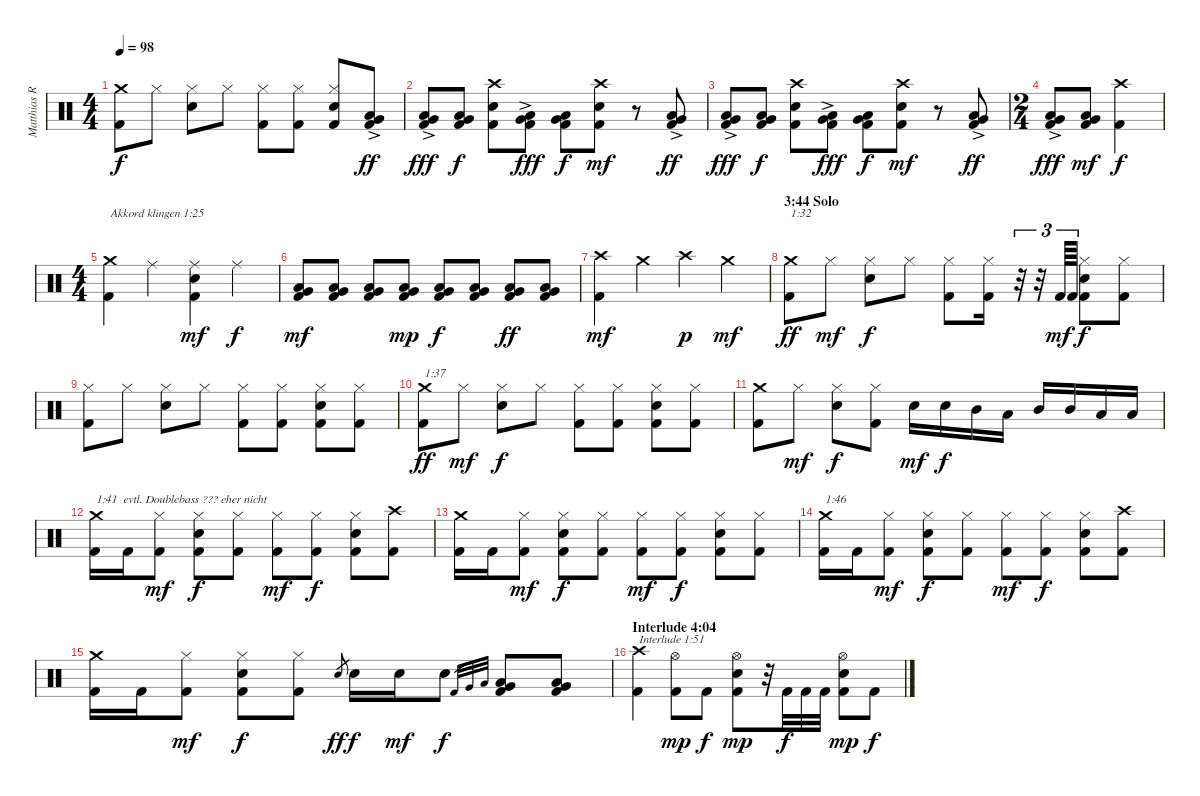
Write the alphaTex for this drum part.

\track ("Matthias R." "Matthias R") {instrument percussion}
\staff {score}
\articulation defaults
\ts (4 4)
\tempo 98
\clef neutral
\ks c
("Kick (hit) 2" "Crash medium (hit)").8{dy f} "Hi-Hat (closed)".8 ("Electric Snare (hit)" "Hi-Hat (closed)").8 "Hi-Hat (closed)".8 ("Kick (hit) 2" "Hi-Hat (closed)").8 ("Kick (hit) 2" "Hi-Hat (closed)").8 ("Kick (hit) 2" "Electric Snare (hit)" "Hi-Hat (closed)").8 ("Kick (hit) 2" "Very Low Tom (hit)"{ac} "Low Tom (hit)"{ac}).8{dy ff} |
("Kick (hit) 2" "Very Low Tom (hit)"{ac} "Low Tom (hit)"{ac}).8{dy fff} ("Kick (hit) 2" "Very Low Tom (hit)" "Low Tom (hit)").8{dy f} ("Kick (hit) 2" "Electric Snare (hit)" "Crash high (hit)").8 ("Kick (hit) 2" "Very Low Tom (hit)"{ac} "Low Tom (hit)"{ac}).8{dy fff} ("Kick (hit) 2" "Very Low Tom (hit)" "Low Tom (hit)").8{dy f} ("Kick (hit) 2" "Electric Snare (hit)" "Crash high (hit)").8{dy mf} r.8 ("Kick (hit) 2" "Very Low Tom (hit)"{ac} "Low Tom (hit)"{ac}).8{dy ff} |
("Kick (hit) 2" "Very Low Tom (hit)"{ac} "Low Tom (hit)"{ac}).8{dy fff} ("Kick (hit) 2" "Very Low Tom (hit)" "Low Tom (hit)").8{dy f} ("Kick (hit) 2" "Electric Snare (hit)" "Crash high (hit)").8 ("Kick (hit) 2" "Very Low Tom (hit)"{ac} "Low Tom (hit)"{ac}).8{dy fff} ("Kick (hit) 2" "Very Low Tom (hit)" "Low Tom (hit)").8{dy f} ("Kick (hit) 2" "Electric Snare (hit)" "Crash high (hit)").8{dy mf} r.8 ("Kick (hit) 2" "Very Low Tom (hit)"{ac} "Low Tom (hit)"{ac}).8{dy ff} |
\ts (2 4)
("Kick (hit) 2" "Very Low Tom (hit)"{ac} "Low Tom (hit)"{ac}).8{dy fff} ("Kick (hit) 2" "Very Low Tom (hit)" "Low Tom (hit)").8{dy mf} ("Kick (hit) 2" "Crash high (hit)").4{dy f} |
\ts (4 4)
("Kick (hit) 2" "Crash medium (hit)").4{txt "Akkord klingen 1:25"} "Ride (middle)".4 ("Kick (hit) 2" "Electric Snare (hit)" "Ride (middle)").4{dy mf} "Ride (middle)".4{dy f} |
("Kick (hit) 2" "Very Low Tom (hit)" "Low Tom (hit)").8{dy mf} ("Kick (hit) 2" "Very Low Tom (hit)" "Low Tom (hit)").8 ("Kick (hit) 2" "Very Low Tom (hit)" "Low Tom (hit)").8 ("Kick (hit) 2" "Very Low Tom (hit)" "Low Tom (hit)").8{dy mp} ("Kick (hit) 2" "Very Low Tom (hit)" "Low Tom (hit)").8{dy f} ("Kick (hit) 2" "Very Low Tom (hit)" "Low Tom (hit)").8 ("Kick (hit) 2" "Very Low Tom (hit)" "Low Tom (hit)").8{dy ff} ("Kick (hit) 2" "Very Low Tom (hit)" "Low Tom (hit)").8 |
("Kick (hit) 2" "Crash high (hit)").4{dy mf} "Crash medium (hit)".4 "Crash high (hit)".4{dy p} "Crash medium (hit)".4{dy mf} |
\section ("" "3:44 Solo")
("Kick (hit) 2" "Crash medium (hit)").8{txt "1:32" dy ff} "Hi-Hat (closed)".8{dy mf} ("Electric Snare (hit)" "Hi-Hat (closed)").8{dy f} "Hi-Hat (closed)".8 ("Kick (hit) 2" "Hi-Hat (closed)").8 ("Kick (hit) 2" "Hi-Hat (closed)").16 r.32{tu (3 2)} r.32{tu (3 2)} "Kick (hit) 2".64{tu (3 2) dy mf} "Kick (hit) 2".64{tu (3 2)} ("Kick (hit) 2" "Electric Snare (hit)" "Hi-Hat (closed)").8{dy f} ("Kick (hit) 2" "Hi-Hat (closed)").8 |
("Kick (hit) 2" "Hi-Hat (closed)").8 "Hi-Hat (closed)".8 ("Electric Snare (hit)" "Hi-Hat (closed)").8 "Hi-Hat (closed)".8 ("Kick (hit) 2" "Hi-Hat (closed)").8 ("Kick (hit) 2" "Hi-Hat (closed)").8 ("Kick (hit) 2" "Electric Snare (hit)" "Hi-Hat (closed)").8 ("Kick (hit) 2" "Hi-Hat (closed)").8 |
("Kick (hit) 2" "Crash medium (hit)").8{txt "1:37" dy ff} "Hi-Hat (closed)".8{dy mf} ("Electric Snare (hit)" "Hi-Hat (closed)").8{dy f} "Hi-Hat (closed)".8 ("Kick (hit) 2" "Hi-Hat (closed)").8 ("Kick (hit) 2" "Hi-Hat (closed)").8 ("Kick (hit) 2" "Electric Snare (hit)" "Hi-Hat (closed)").8 ("Kick (hit) 2" "Hi-Hat (closed)").8 |
("Kick (hit) 2" "Crash medium (hit)").8 "Hi-Hat (closed)".8{dy mf} ("Electric Snare (hit)" "Hi-Hat (closed)").8{dy f} ("Kick (hit) 2" "Hi-Hat (closed)").8 "Electric Snare (hit)".16{dy mf} "Electric Snare (hit)".16{dy f} "Mid Tom (hit)".16 "Low Tom (hit)".16 "Mid Tom (hit)".16 "Mid Tom (hit)".16 "Low Tom (hit)".16 "Low Tom (hit)".16 |
("Kick (hit) 2" "Crash medium (hit)").16{txt "1:41  evtl. Doublebass ??? eher nicht"} "Kick (hit) 2".16 ("Kick (hit) 2" "Hi-Hat (closed)").8{dy mf} ("Kick (hit) 2" "Electric Snare (hit)" "Hi-Hat (closed)").8{dy f} ("Kick (hit) 2" "Hi-Hat (closed)").8 ("Kick (hit) 2" "Hi-Hat (closed)").8{dy mf} ("Kick (hit) 2" "Hi-Hat (closed)").8{dy f} ("Kick (hit) 2" "Electric Snare (hit)" "Hi-Hat (closed)").8 ("Kick (hit) 2" "Crash high (hit)").8 |
("Kick (hit) 2" "Crash medium (hit)").16 "Kick (hit) 2".16 ("Kick (hit) 2" "Hi-Hat (closed)").8{dy mf} ("Kick (hit) 2" "Electric Snare (hit)" "Hi-Hat (closed)").8{dy f} ("Kick (hit) 2" "Hi-Hat (closed)").8 ("Kick (hit) 2" "Hi-Hat (closed)").8{dy mf} ("Kick (hit) 2" "Hi-Hat (closed)").8{dy f} ("Kick (hit) 2" "Electric Snare (hit)" "Hi-Hat (closed)").8 ("Kick (hit) 2" "Hi-Hat (closed)").8 |
("Kick (hit) 2" "Crash medium (hit)").16{txt "1:46"} "Kick (hit) 2".16 ("Kick (hit) 2" "Hi-Hat (closed)").8{dy mf} ("Kick (hit) 2" "Electric Snare (hit)" "Hi-Hat (closed)").8{dy f} ("Kick (hit) 2" "Hi-Hat (closed)").8 ("Kick (hit) 2" "Hi-Hat (closed)").8{dy mf} ("Kick (hit) 2" "Hi-Hat (closed)").8{dy f} ("Kick (hit) 2" "Electric Snare (hit)" "Hi-Hat (closed)").8 ("Kick (hit) 2" "Crash high (hit)").8 |
("Kick (hit) 2" "Crash medium (hit)").16 "Kick (hit) 2".16 ("Kick (hit) 2" "Hi-Hat (closed)").8{dy mf} ("Kick (hit) 2" "Electric Snare (hit)" "Hi-Hat (closed)").8{dy f} ("Kick (hit) 2" "Hi-Hat (closed)").8 "Electric Snare (hit)".8{gr dy ff} "Electric Snare (hit)".16{dy f} "Electric Snare (hit)".16{dy mf} "Electric Snare (hit)".8{dy f} "Kick (hit) 2".32{gr} "Very Low Tom (hit)".32{gr} "Low Tom (hit)".32{gr} ("Kick (hit) 2" "Very Low Tom (hit)" "Low Tom (hit)").8 ("Kick (hit) 2" "Very Low Tom (hit)" "Low Tom (hit)").8 |
\section ("" "Interlude 4:04")
("Kick (hit) 2" "Crash high (hit)").4{txt "Interlude 1:51"} ("Kick (hit) 2" "Hi-Hat (open)").8{dy mp} "Kick (hit) 2".8{dy f} ("Kick (hit) 2" "Electric Snare (hit)" "Hi-Hat (open)").8{dy mp} r.32 "Kick (hit) 2".32{dy f} "Kick (hit) 2".32 "Kick (hit) 2".32 ("Kick (hit) 2" "Electric Snare (hit)" "Hi-Hat (open)").8{dy mp} "Kick (hit) 2".8{dy f}
